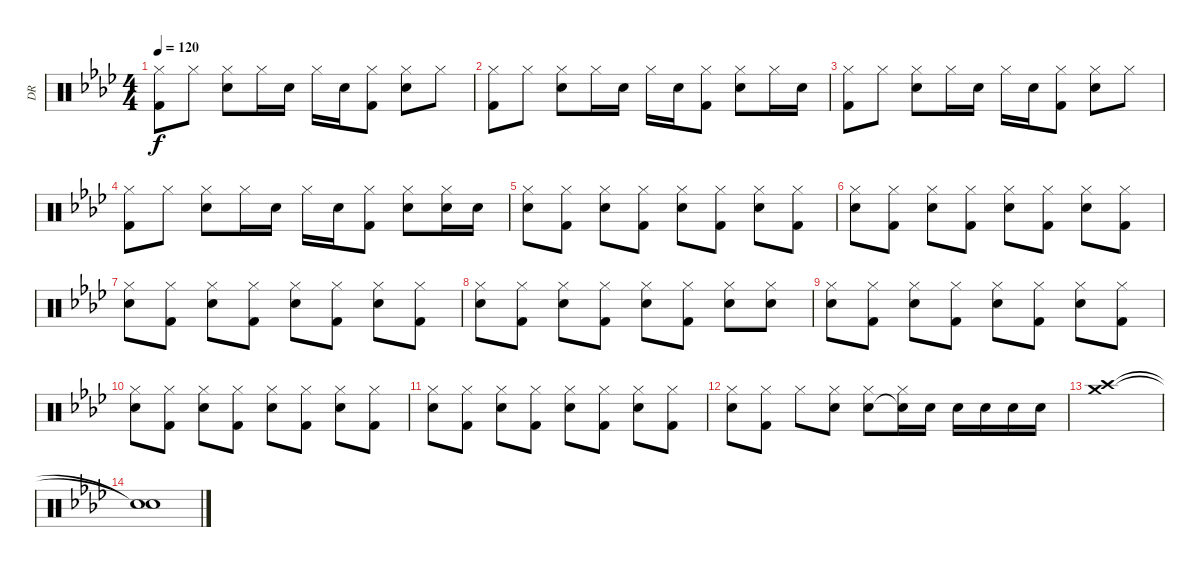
\track ("DR" "DR") {instrument percussion}
\staff {score}
\articulation defaults
\ts (4 4)
\tempo 120
\clef neutral
\ks ab
("Hi-Hat (closed)" "Kick (hit) 2").8{dy f} "Hi-Hat (closed)".8 ("Hi-Hat (closed)" "Electric Snare (hit)").8 "Hi-Hat (closed)".16 "Electric Snare (hit)".16 "Hi-Hat (closed)".16 "Electric Snare (hit)".16 ("Hi-Hat (closed)" "Kick (hit) 2").8 ("Hi-Hat (closed)" "Electric Snare (hit)").8 "Hi-Hat (closed)".8 |
("Hi-Hat (closed)" "Kick (hit) 2").8 "Hi-Hat (closed)".8 ("Hi-Hat (closed)" "Electric Snare (hit)").8 "Hi-Hat (closed)".16 "Electric Snare (hit)".16 "Hi-Hat (closed)".16 "Electric Snare (hit)".16 ("Hi-Hat (closed)" "Kick (hit) 2").8 ("Hi-Hat (closed)" "Electric Snare (hit)").8 "Hi-Hat (closed)".16 "Electric Snare (hit)".16 |
("Hi-Hat (closed)" "Kick (hit) 2").8 "Hi-Hat (closed)".8 ("Hi-Hat (closed)" "Electric Snare (hit)").8 "Hi-Hat (closed)".16 "Electric Snare (hit)".16 "Hi-Hat (closed)".16 "Electric Snare (hit)".16 ("Hi-Hat (closed)" "Kick (hit) 2").8 ("Hi-Hat (closed)" "Electric Snare (hit)").8 "Hi-Hat (closed)".8 |
("Hi-Hat (closed)" "Kick (hit) 2").8 "Hi-Hat (closed)".8 ("Hi-Hat (closed)" "Electric Snare (hit)").8 "Hi-Hat (closed)".16 "Electric Snare (hit)".16 "Hi-Hat (closed)".16 "Electric Snare (hit)".16 ("Hi-Hat (closed)" "Kick (hit) 2").8 ("Hi-Hat (closed)" "Electric Snare (hit)").8 ("Hi-Hat (closed)" "Electric Snare (hit)").16 "Electric Snare (hit)".16 |
("Hi-Hat (closed)" "Electric Snare (hit)").8 ("Hi-Hat (closed)" "Kick (hit) 2").8 ("Hi-Hat (closed)" "Electric Snare (hit)").8 ("Hi-Hat (closed)" "Kick (hit) 2").8 ("Hi-Hat (closed)" "Electric Snare (hit)").8 ("Hi-Hat (closed)" "Kick (hit) 2").8 ("Hi-Hat (closed)" "Electric Snare (hit)").8 ("Hi-Hat (closed)" "Kick (hit) 2").8 |
("Hi-Hat (closed)" "Electric Snare (hit)").8 ("Hi-Hat (closed)" "Kick (hit) 2").8 ("Hi-Hat (closed)" "Electric Snare (hit)").8 ("Hi-Hat (closed)" "Kick (hit) 2").8 ("Hi-Hat (closed)" "Electric Snare (hit)").8 ("Hi-Hat (closed)" "Kick (hit) 2").8 ("Hi-Hat (closed)" "Electric Snare (hit)").8 ("Hi-Hat (closed)" "Kick (hit) 2").8 |
("Hi-Hat (closed)" "Electric Snare (hit)").8 ("Hi-Hat (closed)" "Kick (hit) 2").8 ("Hi-Hat (closed)" "Electric Snare (hit)").8 ("Hi-Hat (closed)" "Kick (hit) 2").8 ("Hi-Hat (closed)" "Electric Snare (hit)").8 ("Hi-Hat (closed)" "Kick (hit) 2").8 ("Hi-Hat (closed)" "Electric Snare (hit)").8 ("Hi-Hat (closed)" "Kick (hit) 2").8 |
("Hi-Hat (closed)" "Electric Snare (hit)").8 ("Hi-Hat (closed)" "Kick (hit) 2").8 ("Hi-Hat (closed)" "Electric Snare (hit)").8 ("Hi-Hat (closed)" "Kick (hit) 2").8 ("Hi-Hat (closed)" "Electric Snare (hit)").8 ("Hi-Hat (closed)" "Kick (hit) 2").8 ("Hi-Hat (closed)" "Electric Snare (hit)").8 ("Hi-Hat (closed)" "Electric Snare (hit)").8 |
("Hi-Hat (closed)" "Electric Snare (hit)").8 ("Hi-Hat (closed)" "Kick (hit) 2").8 ("Hi-Hat (closed)" "Electric Snare (hit)").8 ("Hi-Hat (closed)" "Kick (hit) 2").8 ("Hi-Hat (closed)" "Electric Snare (hit)").8 ("Hi-Hat (closed)" "Kick (hit) 2").8 ("Hi-Hat (closed)" "Electric Snare (hit)").8 ("Hi-Hat (closed)" "Kick (hit) 2").8 |
("Hi-Hat (closed)" "Electric Snare (hit)").8 ("Hi-Hat (closed)" "Kick (hit) 2").8 ("Hi-Hat (closed)" "Electric Snare (hit)").8 ("Hi-Hat (closed)" "Kick (hit) 2").8 ("Hi-Hat (closed)" "Electric Snare (hit)").8 ("Hi-Hat (closed)" "Kick (hit) 2").8 ("Hi-Hat (closed)" "Electric Snare (hit)").8 ("Hi-Hat (closed)" "Kick (hit) 2").8 |
("Hi-Hat (closed)" "Electric Snare (hit)").8 ("Hi-Hat (closed)" "Kick (hit) 2").8 ("Hi-Hat (closed)" "Electric Snare (hit)").8 ("Hi-Hat (closed)" "Kick (hit) 2").8 ("Hi-Hat (closed)" "Electric Snare (hit)").8 ("Hi-Hat (closed)" "Kick (hit) 2").8 ("Hi-Hat (closed)" "Electric Snare (hit)").8 ("Hi-Hat (closed)" "Kick (hit) 2").8 |
("Hi-Hat (closed)" "Electric Snare (hit)").8 ("Hi-Hat (closed)" "Kick (hit) 2").8 "Hi-Hat (closed)".8 ("Hi-Hat (closed)" "Electric Snare (hit)").8 ("Hi-Hat (closed)" "Electric Snare (hit)").8 ("Hi-Hat (closed)" "Snare (hit)"{t}).16 "Electric Snare (hit)".16 "Electric Snare (hit)".16 "Electric Snare (hit)".16 "Electric Snare (hit)".16 "Electric Snare (hit)".16 |
("Crash medium (hit)" "Crash high (hit)").1 |
("Snare (hit)"{t} "Snare (hit)"{t}).1
